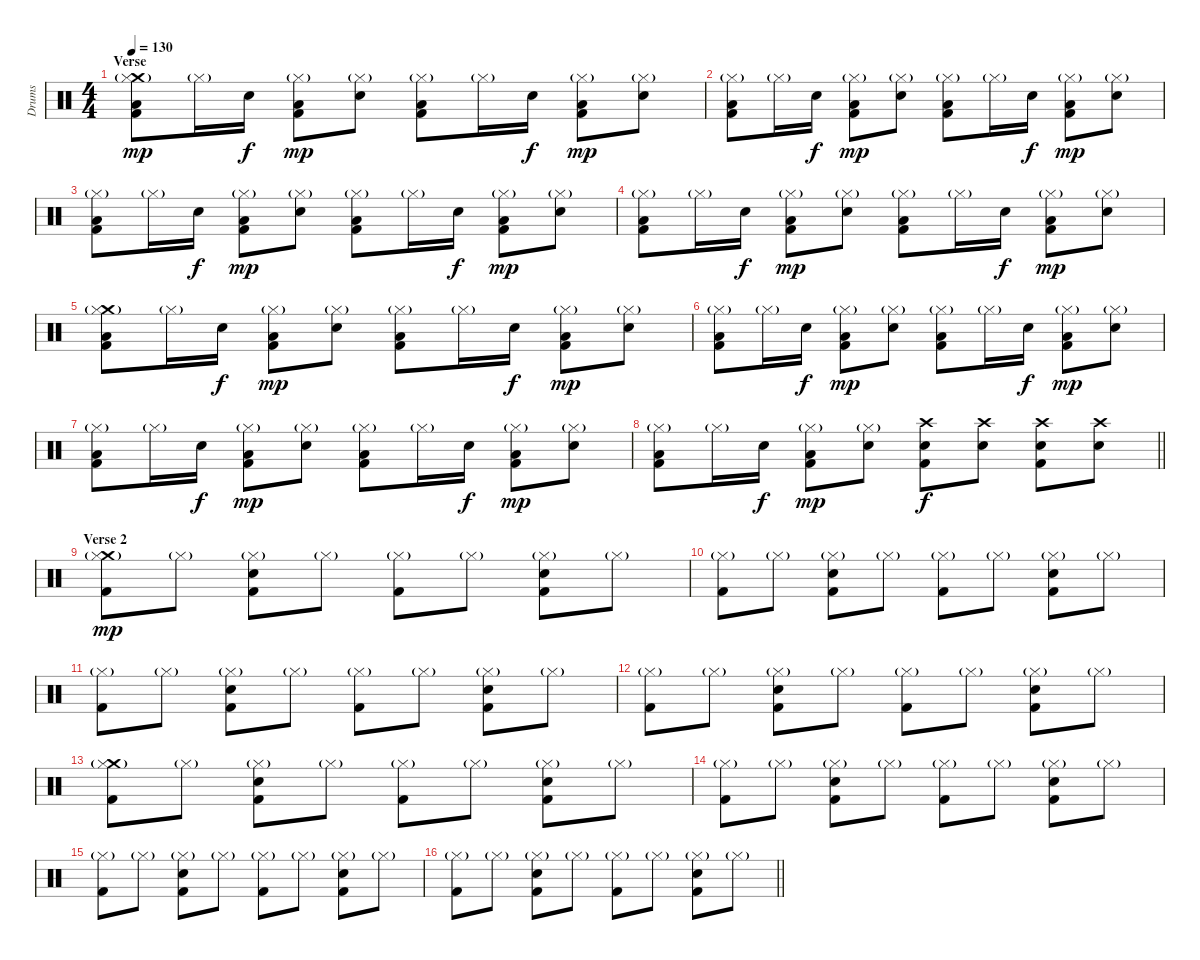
\track ("Drums" "Drums") {instrument percussion}
\staff {score}
\articulation defaults
\ts (4 4)
\section ("" "Verse")
\tempo 130
\clef neutral
\ks c
("Crash medium (hit)" "Hi-Hat (closed)"{g} "Low Floor Tom (hit)" "Kick (hit) 2").8{dy mp} "Hi-Hat (closed)"{g}.16 "Electric Snare (hit)".16{dy f} ("Hi-Hat (closed)"{g} "Low Floor Tom (hit)" "Kick (hit) 2").8{dy mp} ("Hi-Hat (closed)"{g} "Electric Snare (hit)").8 ("Hi-Hat (closed)"{g} "Low Floor Tom (hit)" "Kick (hit) 2").8 "Hi-Hat (closed)"{g}.16 "Electric Snare (hit)".16{dy f} ("Hi-Hat (closed)"{g} "Low Floor Tom (hit)" "Kick (hit) 2").8{dy mp} ("Hi-Hat (closed)"{g} "Electric Snare (hit)").8 |
("Hi-Hat (closed)"{g} "Low Floor Tom (hit)" "Kick (hit) 2").8 "Hi-Hat (closed)"{g}.16 "Electric Snare (hit)".16{dy f} ("Hi-Hat (closed)"{g} "Low Floor Tom (hit)" "Kick (hit) 2").8{dy mp} ("Hi-Hat (closed)"{g} "Electric Snare (hit)").8 ("Hi-Hat (closed)"{g} "Low Floor Tom (hit)" "Kick (hit) 2").8 "Hi-Hat (closed)"{g}.16 "Electric Snare (hit)".16{dy f} ("Hi-Hat (closed)"{g} "Low Floor Tom (hit)" "Kick (hit) 2").8{dy mp} ("Hi-Hat (closed)"{g} "Electric Snare (hit)").8 |
("Hi-Hat (closed)"{g} "Low Floor Tom (hit)" "Kick (hit) 2").8 "Hi-Hat (closed)"{g}.16 "Electric Snare (hit)".16{dy f} ("Hi-Hat (closed)"{g} "Low Floor Tom (hit)" "Kick (hit) 2").8{dy mp} ("Hi-Hat (closed)"{g} "Electric Snare (hit)").8 ("Hi-Hat (closed)"{g} "Low Floor Tom (hit)" "Kick (hit) 2").8 "Hi-Hat (closed)"{g}.16 "Electric Snare (hit)".16{dy f} ("Hi-Hat (closed)"{g} "Low Floor Tom (hit)" "Kick (hit) 2").8{dy mp} ("Hi-Hat (closed)"{g} "Electric Snare (hit)").8 |
("Hi-Hat (closed)"{g} "Low Floor Tom (hit)" "Kick (hit) 2").8 "Hi-Hat (closed)"{g}.16 "Electric Snare (hit)".16{dy f} ("Hi-Hat (closed)"{g} "Low Floor Tom (hit)" "Kick (hit) 2").8{dy mp} ("Hi-Hat (closed)"{g} "Electric Snare (hit)").8 ("Hi-Hat (closed)"{g} "Low Floor Tom (hit)" "Kick (hit) 2").8 "Hi-Hat (closed)"{g}.16 "Electric Snare (hit)".16{dy f} ("Hi-Hat (closed)"{g} "Low Floor Tom (hit)" "Kick (hit) 2").8{dy mp} ("Hi-Hat (closed)"{g} "Electric Snare (hit)").8 |
("Crash medium (hit)" "Hi-Hat (closed)"{g} "Low Floor Tom (hit)" "Kick (hit) 2").8 "Hi-Hat (closed)"{g}.16 "Electric Snare (hit)".16{dy f} ("Hi-Hat (closed)"{g} "Low Floor Tom (hit)" "Kick (hit) 2").8{dy mp} ("Hi-Hat (closed)"{g} "Electric Snare (hit)").8 ("Hi-Hat (closed)"{g} "Low Floor Tom (hit)" "Kick (hit) 2").8 "Hi-Hat (closed)"{g}.16 "Electric Snare (hit)".16{dy f} ("Hi-Hat (closed)"{g} "Low Floor Tom (hit)" "Kick (hit) 2").8{dy mp} ("Hi-Hat (closed)"{g} "Electric Snare (hit)").8 |
("Hi-Hat (closed)"{g} "Low Floor Tom (hit)" "Kick (hit) 2").8 "Hi-Hat (closed)"{g}.16 "Electric Snare (hit)".16{dy f} ("Hi-Hat (closed)"{g} "Low Floor Tom (hit)" "Kick (hit) 2").8{dy mp} ("Hi-Hat (closed)"{g} "Electric Snare (hit)").8 ("Hi-Hat (closed)"{g} "Low Floor Tom (hit)" "Kick (hit) 2").8 "Hi-Hat (closed)"{g}.16 "Electric Snare (hit)".16{dy f} ("Hi-Hat (closed)"{g} "Low Floor Tom (hit)" "Kick (hit) 2").8{dy mp} ("Hi-Hat (closed)"{g} "Electric Snare (hit)").8 |
("Hi-Hat (closed)"{g} "Low Floor Tom (hit)" "Kick (hit) 2").8 "Hi-Hat (closed)"{g}.16 "Electric Snare (hit)".16{dy f} ("Hi-Hat (closed)"{g} "Low Floor Tom (hit)" "Kick (hit) 2").8{dy mp} ("Hi-Hat (closed)"{g} "Electric Snare (hit)").8 ("Hi-Hat (closed)"{g} "Low Floor Tom (hit)" "Kick (hit) 2").8 "Hi-Hat (closed)"{g}.16 "Electric Snare (hit)".16{dy f} ("Hi-Hat (closed)"{g} "Low Floor Tom (hit)" "Kick (hit) 2").8{dy mp} ("Hi-Hat (closed)"{g} "Electric Snare (hit)").8 |
\barLineRight lightlight
("Hi-Hat (closed)"{g} "Low Floor Tom (hit)" "Kick (hit) 2").8 "Hi-Hat (closed)"{g}.16 "Electric Snare (hit)".16{dy f} ("Hi-Hat (closed)"{g} "Low Floor Tom (hit)" "Kick (hit) 2").8{dy mp} ("Hi-Hat (closed)"{g} "Electric Snare (hit)").8 ("Crash high (hit)" "Electric Snare (hit)" "Kick (hit) 2").8{dy f} ("Crash high (hit)" "Electric Snare (hit)").8 ("Crash high (hit)" "Electric Snare (hit)" "Kick (hit) 2").8 ("Crash high (hit)" "Electric Snare (hit)").8 |
\section ("" "Verse 2")
("Crash medium (hit)" "Hi-Hat (closed)"{g} "Kick (hit) 2").8{dy mp} "Hi-Hat (closed)"{g}.8 ("Hi-Hat (closed)"{g} "Electric Snare (hit)" "Kick (hit) 2").8 "Hi-Hat (closed)"{g}.8 ("Hi-Hat (closed)"{g} "Kick (hit) 2").8 "Hi-Hat (closed)"{g}.8 ("Hi-Hat (closed)"{g} "Electric Snare (hit)" "Kick (hit) 2").8 "Hi-Hat (closed)"{g}.8 |
("Hi-Hat (closed)"{g} "Kick (hit) 2").8 "Hi-Hat (closed)"{g}.8 ("Hi-Hat (closed)"{g} "Electric Snare (hit)" "Kick (hit) 2").8 "Hi-Hat (closed)"{g}.8 ("Hi-Hat (closed)"{g} "Kick (hit) 2").8 "Hi-Hat (closed)"{g}.8 ("Hi-Hat (closed)"{g} "Electric Snare (hit)" "Kick (hit) 2").8 "Hi-Hat (closed)"{g}.8 |
("Hi-Hat (closed)"{g} "Kick (hit) 2").8 "Hi-Hat (closed)"{g}.8 ("Hi-Hat (closed)"{g} "Electric Snare (hit)" "Kick (hit) 2").8 "Hi-Hat (closed)"{g}.8 ("Hi-Hat (closed)"{g} "Kick (hit) 2").8 "Hi-Hat (closed)"{g}.8 ("Hi-Hat (closed)"{g} "Electric Snare (hit)" "Kick (hit) 2").8 "Hi-Hat (closed)"{g}.8 |
("Hi-Hat (closed)"{g} "Kick (hit) 2").8 "Hi-Hat (closed)"{g}.8 ("Hi-Hat (closed)"{g} "Electric Snare (hit)" "Kick (hit) 2").8 "Hi-Hat (closed)"{g}.8 ("Hi-Hat (closed)"{g} "Kick (hit) 2").8 "Hi-Hat (closed)"{g}.8 ("Hi-Hat (closed)"{g} "Electric Snare (hit)" "Kick (hit) 2").8 "Hi-Hat (closed)"{g}.8 |
("Crash medium (hit)" "Hi-Hat (closed)"{g} "Kick (hit) 2").8 "Hi-Hat (closed)"{g}.8 ("Hi-Hat (closed)"{g} "Electric Snare (hit)" "Kick (hit) 2").8 "Hi-Hat (closed)"{g}.8 ("Hi-Hat (closed)"{g} "Kick (hit) 2").8 "Hi-Hat (closed)"{g}.8 ("Hi-Hat (closed)"{g} "Electric Snare (hit)" "Kick (hit) 2").8 "Hi-Hat (closed)"{g}.8 |
("Hi-Hat (closed)"{g} "Kick (hit) 2").8 "Hi-Hat (closed)"{g}.8 ("Hi-Hat (closed)"{g} "Electric Snare (hit)" "Kick (hit) 2").8 "Hi-Hat (closed)"{g}.8 ("Hi-Hat (closed)"{g} "Kick (hit) 2").8 "Hi-Hat (closed)"{g}.8 ("Hi-Hat (closed)"{g} "Electric Snare (hit)" "Kick (hit) 2").8 "Hi-Hat (closed)"{g}.8 |
("Hi-Hat (closed)"{g} "Kick (hit) 2").8 "Hi-Hat (closed)"{g}.8 ("Hi-Hat (closed)"{g} "Electric Snare (hit)" "Kick (hit) 2").8 "Hi-Hat (closed)"{g}.8 ("Hi-Hat (closed)"{g} "Kick (hit) 2").8 "Hi-Hat (closed)"{g}.8 ("Hi-Hat (closed)"{g} "Electric Snare (hit)" "Kick (hit) 2").8 "Hi-Hat (closed)"{g}.8 |
\barLineRight lightlight
("Hi-Hat (closed)"{g} "Kick (hit) 2").8 "Hi-Hat (closed)"{g}.8 ("Hi-Hat (closed)"{g} "Electric Snare (hit)" "Kick (hit) 2").8 "Hi-Hat (closed)"{g}.8 ("Hi-Hat (closed)"{g} "Kick (hit) 2").8 "Hi-Hat (closed)"{g}.8 ("Hi-Hat (closed)"{g} "Electric Snare (hit)" "Kick (hit) 2").8 "Hi-Hat (closed)"{g}.8
